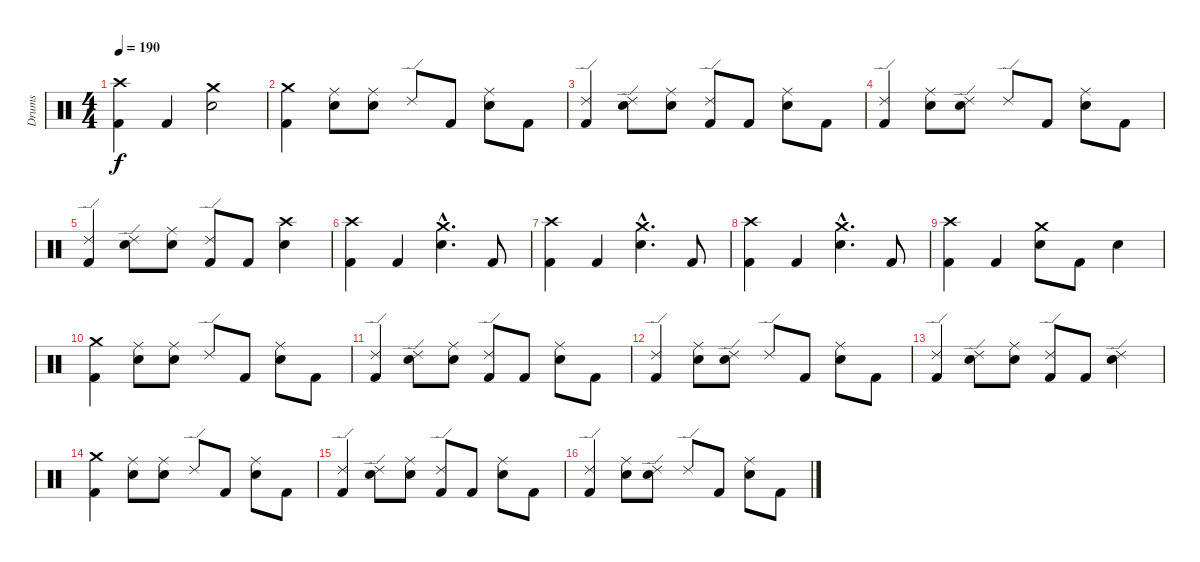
\track ("Drums" "Drums") {instrument percussion}
\staff {score}
\articulation defaults
\ts (4 4)
\tempo 190
\clef neutral
\ks c
("Crash high (hit)" "Kick (hit) 2").4{dy f} "Kick (hit) 2".4 ("Crash medium (hit)" "Electric Snare (hit)").2 |
("Crash medium (hit)" "Kick (hit) 2").4 ("Ride (middle)" "Electric Snare (hit)").8 ("Ride (middle)" "Electric Snare (hit)").8 "Ride (edge) 2".8 "Kick (hit) 2".8 ("Ride (middle)" "Electric Snare (hit)").8 "Kick (hit) 2".8 |
("Ride (edge) 2" "Kick (hit) 2").4 ("Ride (edge) 2" "Electric Snare (hit)").8 ("Ride (middle)" "Electric Snare (hit)").8 ("Ride (edge) 2" "Kick (hit) 2").8 "Kick (hit) 2".8 ("Ride (middle)" "Electric Snare (hit)").8 "Kick (hit) 2".8 |
("Ride (edge) 2" "Kick (hit) 2").4 ("Ride (middle)" "Electric Snare (hit)").8 ("Ride (edge) 2" "Electric Snare (hit)").8 "Ride (edge) 2".8 "Kick (hit) 2".8 ("Ride (middle)" "Electric Snare (hit)").8 "Kick (hit) 2".8 |
("Ride (edge) 2" "Kick (hit) 2").4 ("Ride (edge) 2" "Electric Snare (hit)").8 ("Ride (middle)" "Electric Snare (hit)").8 ("Ride (edge) 2" "Kick (hit) 2").8 "Kick (hit) 2".8 ("Crash high (hit)" "Electric Snare (hit)").4 |
("Crash high (hit)" "Kick (hit) 2").4 "Kick (hit) 2".4 ("Crash medium (hit)"{hac} "Electric Snare (hit)"{hac}).4{d} "Kick (hit) 2".8 |
("Crash high (hit)" "Kick (hit) 2").4 "Kick (hit) 2".4 ("Crash medium (hit)"{hac} "Electric Snare (hit)"{hac}).4{d} "Kick (hit) 2".8 |
("Crash high (hit)" "Kick (hit) 2").4 "Kick (hit) 2".4 ("Crash medium (hit)"{hac} "Electric Snare (hit)"{hac}).4{d} "Kick (hit) 2".8 |
("Crash high (hit)" "Kick (hit) 2").4 "Kick (hit) 2".4 ("Crash medium (hit)" "Electric Snare (hit)").8 "Kick (hit) 2".8 "Electric Snare (hit)".4 |
("Crash medium (hit)" "Kick (hit) 2").4 ("Ride (middle)" "Electric Snare (hit)").8 ("Ride (middle)" "Electric Snare (hit)").8 "Ride (edge) 2".8 "Kick (hit) 2".8 ("Ride (middle)" "Electric Snare (hit)").8 "Kick (hit) 2".8 |
("Ride (edge) 2" "Kick (hit) 2").4 ("Ride (edge) 2" "Electric Snare (hit)").8 ("Ride (middle)" "Electric Snare (hit)").8 ("Ride (edge) 2" "Kick (hit) 2").8 "Kick (hit) 2".8 ("Ride (middle)" "Electric Snare (hit)").8 "Kick (hit) 2".8 |
("Ride (edge) 2" "Kick (hit) 2").4 ("Ride (middle)" "Electric Snare (hit)").8 ("Ride (edge) 2" "Electric Snare (hit)").8 "Ride (edge) 2".8 "Kick (hit) 2".8 ("Ride (middle)" "Electric Snare (hit)").8 "Kick (hit) 2".8 |
("Ride (edge) 2" "Kick (hit) 2").4 ("Ride (edge) 2" "Electric Snare (hit)").8 ("Ride (middle)" "Electric Snare (hit)").8 ("Ride (edge) 2" "Kick (hit) 2").8 "Kick (hit) 2".8 ("Ride (edge) 2" "Electric Snare (hit)").4 |
("Crash medium (hit)" "Kick (hit) 2").4 ("Ride (middle)" "Electric Snare (hit)").8 ("Ride (middle)" "Electric Snare (hit)").8 "Ride (edge) 2".8 "Kick (hit) 2".8 ("Ride (middle)" "Electric Snare (hit)").8 "Kick (hit) 2".8 |
("Ride (edge) 2" "Kick (hit) 2").4 ("Ride (edge) 2" "Electric Snare (hit)").8 ("Ride (middle)" "Electric Snare (hit)").8 ("Ride (edge) 2" "Kick (hit) 2").8 "Kick (hit) 2".8 ("Ride (middle)" "Electric Snare (hit)").8 "Kick (hit) 2".8 |
("Ride (edge) 2" "Kick (hit) 2").4 ("Ride (middle)" "Electric Snare (hit)").8 ("Ride (edge) 2" "Electric Snare (hit)").8 "Ride (edge) 2".8 "Kick (hit) 2".8 ("Ride (middle)" "Electric Snare (hit)").8 "Kick (hit) 2".8
